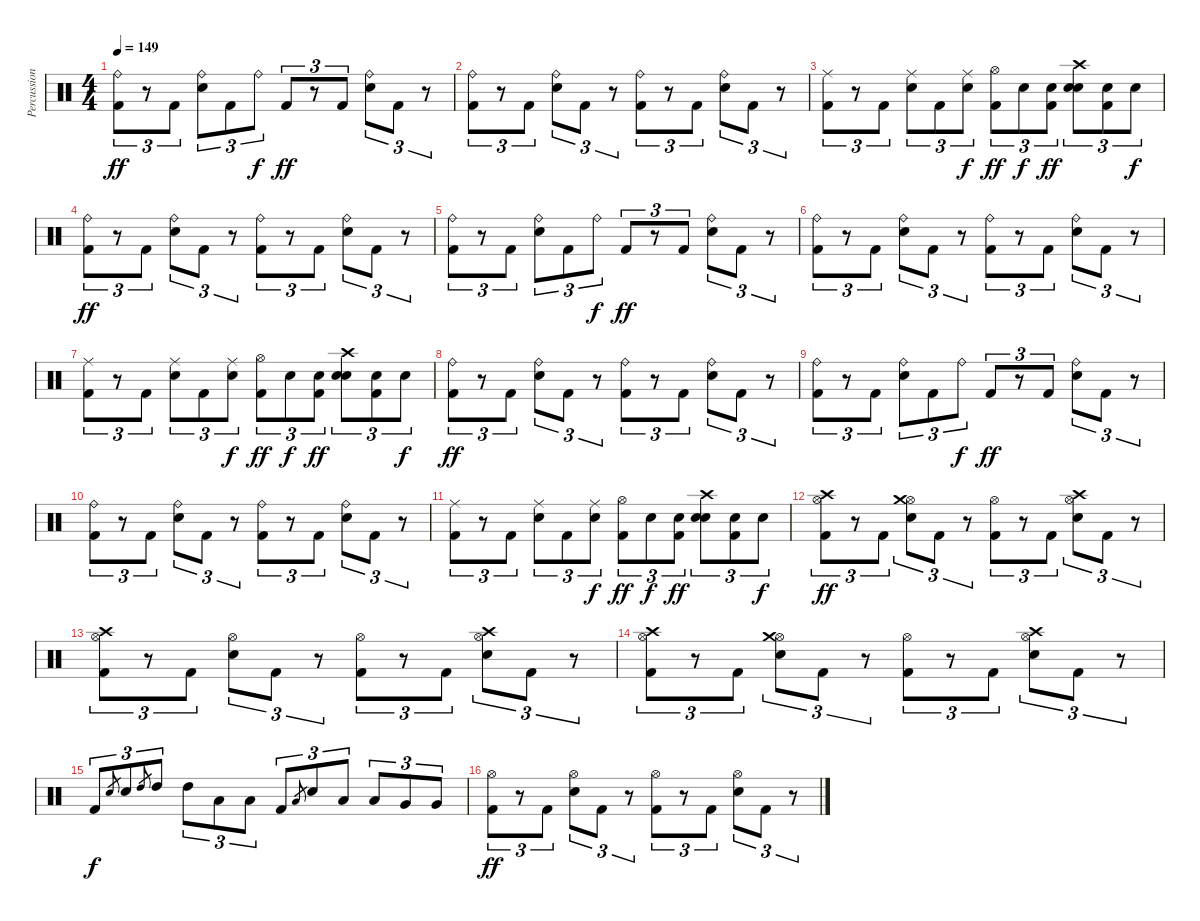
\track ("Percussion" "Percussion") {instrument percussion}
\staff {score}
\articulation defaults
\ts (4 4)
\tempo 149
\clef neutral
\ks c
("Kick (hit) 2" "Ride (bell)").8{tu (3 2) dy ff} r.8{tu (3 2)} "Kick (hit) 2".8{tu (3 2)} ("Electric Snare (hit)" "Ride (bell)").8{tu (3 2)} "Kick (hit) 2".8{tu (3 2)} "Ride (bell)".8{tu (3 2) dy f} "Kick (hit) 2".8{tu (3 2) dy ff} r.8{tu (3 2)} "Kick (hit) 2".8{tu (3 2)} ("Electric Snare (hit)" "Ride (bell)").8{tu (3 2)} "Kick (hit) 2".8{tu (3 2)} r.8{tu (3 2)} |
("Kick (hit) 2" "Ride (bell)").8{tu (3 2)} r.8{tu (3 2)} "Kick (hit) 2".8{tu (3 2)} ("Snare (hit) 2" "Ride (bell)").8{tu (3 2)} "Kick (hit) 2".8{tu (3 2)} r.8{tu (3 2)} ("Kick (hit) 2" "Ride (bell)").8{tu (3 2)} r.8{tu (3 2)} "Kick (hit) 2".8{tu (3 2)} ("Snare (hit) 2" "Ride (bell)").8{tu (3 2)} "Kick (hit) 2".8{tu (3 2)} r.8{tu (3 2)} |
("Kick (hit) 2" "Ride (middle)").8{tu (3 2)} r.8{tu (3 2)} "Kick (hit) 2".8{tu (3 2)} ("Electric Snare (hit)" "Ride (middle)").8{tu (3 2)} "Kick (hit) 2".8{tu (3 2)} ("Electric Snare (hit)" "Ride (middle)").8{tu (3 2) dy f} ("Kick (hit) 2" "Hi-Hat (open)").8{tu (3 2) dy ff} "Electric Snare (hit)".8{tu (3 2) dy f} ("Kick (hit) 2" "Electric Snare (hit)").8{tu (3 2) dy ff} ("Snare (hit) 2" "Electric Snare (hit)" "Crash high (hit)").8{tu (3 2)} ("Kick (hit) 2" "Electric Snare (hit)").8{tu (3 2)} "Electric Snare (hit)".8{tu (3 2) dy f} |
("Kick (hit) 2" "Ride (bell)").8{tu (3 2) dy ff} r.8{tu (3 2)} "Kick (hit) 2".8{tu (3 2)} ("Snare (hit) 2" "Ride (bell)").8{tu (3 2)} "Kick (hit) 2".8{tu (3 2)} r.8{tu (3 2)} ("Kick (hit) 2" "Ride (bell)").8{tu (3 2)} r.8{tu (3 2)} "Kick (hit) 2".8{tu (3 2)} ("Snare (hit) 2" "Ride (bell)").8{tu (3 2)} "Kick (hit) 2".8{tu (3 2)} r.8{tu (3 2)} |
("Kick (hit) 2" "Ride (bell)").8{tu (3 2)} r.8{tu (3 2)} "Kick (hit) 2".8{tu (3 2)} ("Electric Snare (hit)" "Ride (bell)").8{tu (3 2)} "Kick (hit) 2".8{tu (3 2)} "Ride (bell)".8{tu (3 2) dy f} "Kick (hit) 2".8{tu (3 2) dy ff} r.8{tu (3 2)} "Kick (hit) 2".8{tu (3 2)} ("Electric Snare (hit)" "Ride (bell)").8{tu (3 2)} "Kick (hit) 2".8{tu (3 2)} r.8{tu (3 2)} |
("Kick (hit) 2" "Ride (bell)").8{tu (3 2)} r.8{tu (3 2)} "Kick (hit) 2".8{tu (3 2)} ("Snare (hit) 2" "Ride (bell)").8{tu (3 2)} "Kick (hit) 2".8{tu (3 2)} r.8{tu (3 2)} ("Kick (hit) 2" "Ride (bell)").8{tu (3 2)} r.8{tu (3 2)} "Kick (hit) 2".8{tu (3 2)} ("Snare (hit) 2" "Ride (bell)").8{tu (3 2)} "Kick (hit) 2".8{tu (3 2)} r.8{tu (3 2)} |
("Kick (hit) 2" "Ride (middle)").8{tu (3 2)} r.8{tu (3 2)} "Kick (hit) 2".8{tu (3 2)} ("Electric Snare (hit)" "Ride (middle)").8{tu (3 2)} "Kick (hit) 2".8{tu (3 2)} ("Electric Snare (hit)" "Ride (middle)").8{tu (3 2) dy f} ("Kick (hit) 2" "Hi-Hat (open)").8{tu (3 2) dy ff} "Electric Snare (hit)".8{tu (3 2) dy f} ("Kick (hit) 2" "Electric Snare (hit)").8{tu (3 2) dy ff} ("Snare (hit) 2" "Electric Snare (hit)" "Crash high (hit)").8{tu (3 2)} ("Kick (hit) 2" "Electric Snare (hit)").8{tu (3 2)} "Electric Snare (hit)".8{tu (3 2) dy f} |
("Kick (hit) 2" "Ride (bell)").8{tu (3 2) dy ff} r.8{tu (3 2)} "Kick (hit) 2".8{tu (3 2)} ("Snare (hit) 2" "Ride (bell)").8{tu (3 2)} "Kick (hit) 2".8{tu (3 2)} r.8{tu (3 2)} ("Kick (hit) 2" "Ride (bell)").8{tu (3 2)} r.8{tu (3 2)} "Kick (hit) 2".8{tu (3 2)} ("Snare (hit) 2" "Ride (bell)").8{tu (3 2)} "Kick (hit) 2".8{tu (3 2)} r.8{tu (3 2)} |
("Kick (hit) 2" "Ride (bell)").8{tu (3 2)} r.8{tu (3 2)} "Kick (hit) 2".8{tu (3 2)} ("Electric Snare (hit)" "Ride (bell)").8{tu (3 2)} "Kick (hit) 2".8{tu (3 2)} "Ride (bell)".8{tu (3 2) dy f} "Kick (hit) 2".8{tu (3 2) dy ff} r.8{tu (3 2)} "Kick (hit) 2".8{tu (3 2)} ("Electric Snare (hit)" "Ride (bell)").8{tu (3 2)} "Kick (hit) 2".8{tu (3 2)} r.8{tu (3 2)} |
("Kick (hit) 2" "Ride (bell)").8{tu (3 2)} r.8{tu (3 2)} "Kick (hit) 2".8{tu (3 2)} ("Snare (hit) 2" "Ride (bell)").8{tu (3 2)} "Kick (hit) 2".8{tu (3 2)} r.8{tu (3 2)} ("Kick (hit) 2" "Ride (bell)").8{tu (3 2)} r.8{tu (3 2)} "Kick (hit) 2".8{tu (3 2)} ("Snare (hit) 2" "Ride (bell)").8{tu (3 2)} "Kick (hit) 2".8{tu (3 2)} r.8{tu (3 2)} |
("Kick (hit) 2" "Ride (middle)").8{tu (3 2)} r.8{tu (3 2)} "Kick (hit) 2".8{tu (3 2)} ("Electric Snare (hit)" "Ride (middle)").8{tu (3 2)} "Kick (hit) 2".8{tu (3 2)} ("Electric Snare (hit)" "Ride (middle)").8{tu (3 2) dy f} ("Kick (hit) 2" "Hi-Hat (open)").8{tu (3 2) dy ff} "Electric Snare (hit)".8{tu (3 2) dy f} ("Kick (hit) 2" "Electric Snare (hit)").8{tu (3 2) dy ff} ("Snare (hit) 2" "Electric Snare (hit)" "Crash high (hit)").8{tu (3 2)} ("Kick (hit) 2" "Electric Snare (hit)").8{tu (3 2)} "Electric Snare (hit)".8{tu (3 2) dy f} |
("Kick (hit) 2" "Hi-Hat (open)" "Crash high (hit)").8{tu (3 2) dy ff} r.8{tu (3 2)} "Kick (hit) 2".8{tu (3 2)} ("Electric Snare (hit)" "Hi-Hat (open)" "Crash medium (hit)").8{tu (3 2)} "Kick (hit) 2".8{tu (3 2)} r.8{tu (3 2)} ("Kick (hit) 2" "Hi-Hat (open)").8{tu (3 2)} r.8{tu (3 2)} "Kick (hit) 2".8{tu (3 2)} ("Electric Snare (hit)" "Hi-Hat (open)" "Crash high (hit)").8{tu (3 2)} "Kick (hit) 2".8{tu (3 2)} r.8{tu (3 2)} |
("Kick (hit) 2" "Hi-Hat (open)" "Crash high (hit)").8{tu (3 2)} r.8{tu (3 2)} "Kick (hit) 2".8{tu (3 2)} ("Electric Snare (hit)" "Hi-Hat (open)").8{tu (3 2)} "Kick (hit) 2".8{tu (3 2)} r.8{tu (3 2)} ("Kick (hit) 2" "Hi-Hat (open)").8{tu (3 2)} r.8{tu (3 2)} "Kick (hit) 2".8{tu (3 2)} ("Electric Snare (hit)" "Hi-Hat (open)" "Crash high (hit)").8{tu (3 2)} "Kick (hit) 2".8{tu (3 2)} r.8{tu (3 2)} |
("Kick (hit) 2" "Hi-Hat (open)" "Crash high (hit)").8{tu (3 2)} r.8{tu (3 2)} "Kick (hit) 2".8{tu (3 2)} ("Electric Snare (hit)" "Hi-Hat (open)" "Crash medium (hit)").8{tu (3 2)} "Kick (hit) 2".8{tu (3 2)} r.8{tu (3 2)} ("Kick (hit) 2" "Hi-Hat (open)").8{tu (3 2)} r.8{tu (3 2)} "Kick (hit) 2".8{tu (3 2)} ("Electric Snare (hit)" "Hi-Hat (open)" "Crash high (hit)").8{tu (3 2)} "Kick (hit) 2".8{tu (3 2)} r.8{tu (3 2)} |
"Kick (hit) 2".8{tu (3 2) dy f} "Electric Snare (hit)".8{gr} "Electric Snare (hit)".8{tu (3 2)} "High Tom (hit)".8{gr} "High Tom (hit)".8{tu (3 2)} "High Tom (hit)".8{tu (3 2)} "Low Tom (hit)".8{tu (3 2)} "Low Tom (hit)".8{tu (3 2)} "Kick (hit) 2".8{tu (3 2)} "Low Tom (hit)".8{gr} "Electric Snare (hit)".8{tu (3 2)} "Low Tom (hit)".8{tu (3 2)} "Low Tom (hit)".8{tu (3 2)} "Very Low Tom (hit)".8{tu (3 2)} "Very Low Tom (hit)".8{tu (3 2)} |
("Kick (hit) 2" "Hi-Hat (open)").8{tu (3 2) dy ff} r.8{tu (3 2)} "Kick (hit) 2".8{tu (3 2)} ("Snare (hit) 2" "Hi-Hat (open)").8{tu (3 2)} "Kick (hit) 2".8{tu (3 2)} r.8{tu (3 2)} ("Kick (hit) 2" "Hi-Hat (open)").8{tu (3 2)} r.8{tu (3 2)} "Kick (hit) 2".8{tu (3 2)} ("Snare (hit) 2" "Hi-Hat (open)").8{tu (3 2)} "Kick (hit) 2".8{tu (3 2)} r.8{tu (3 2)}
